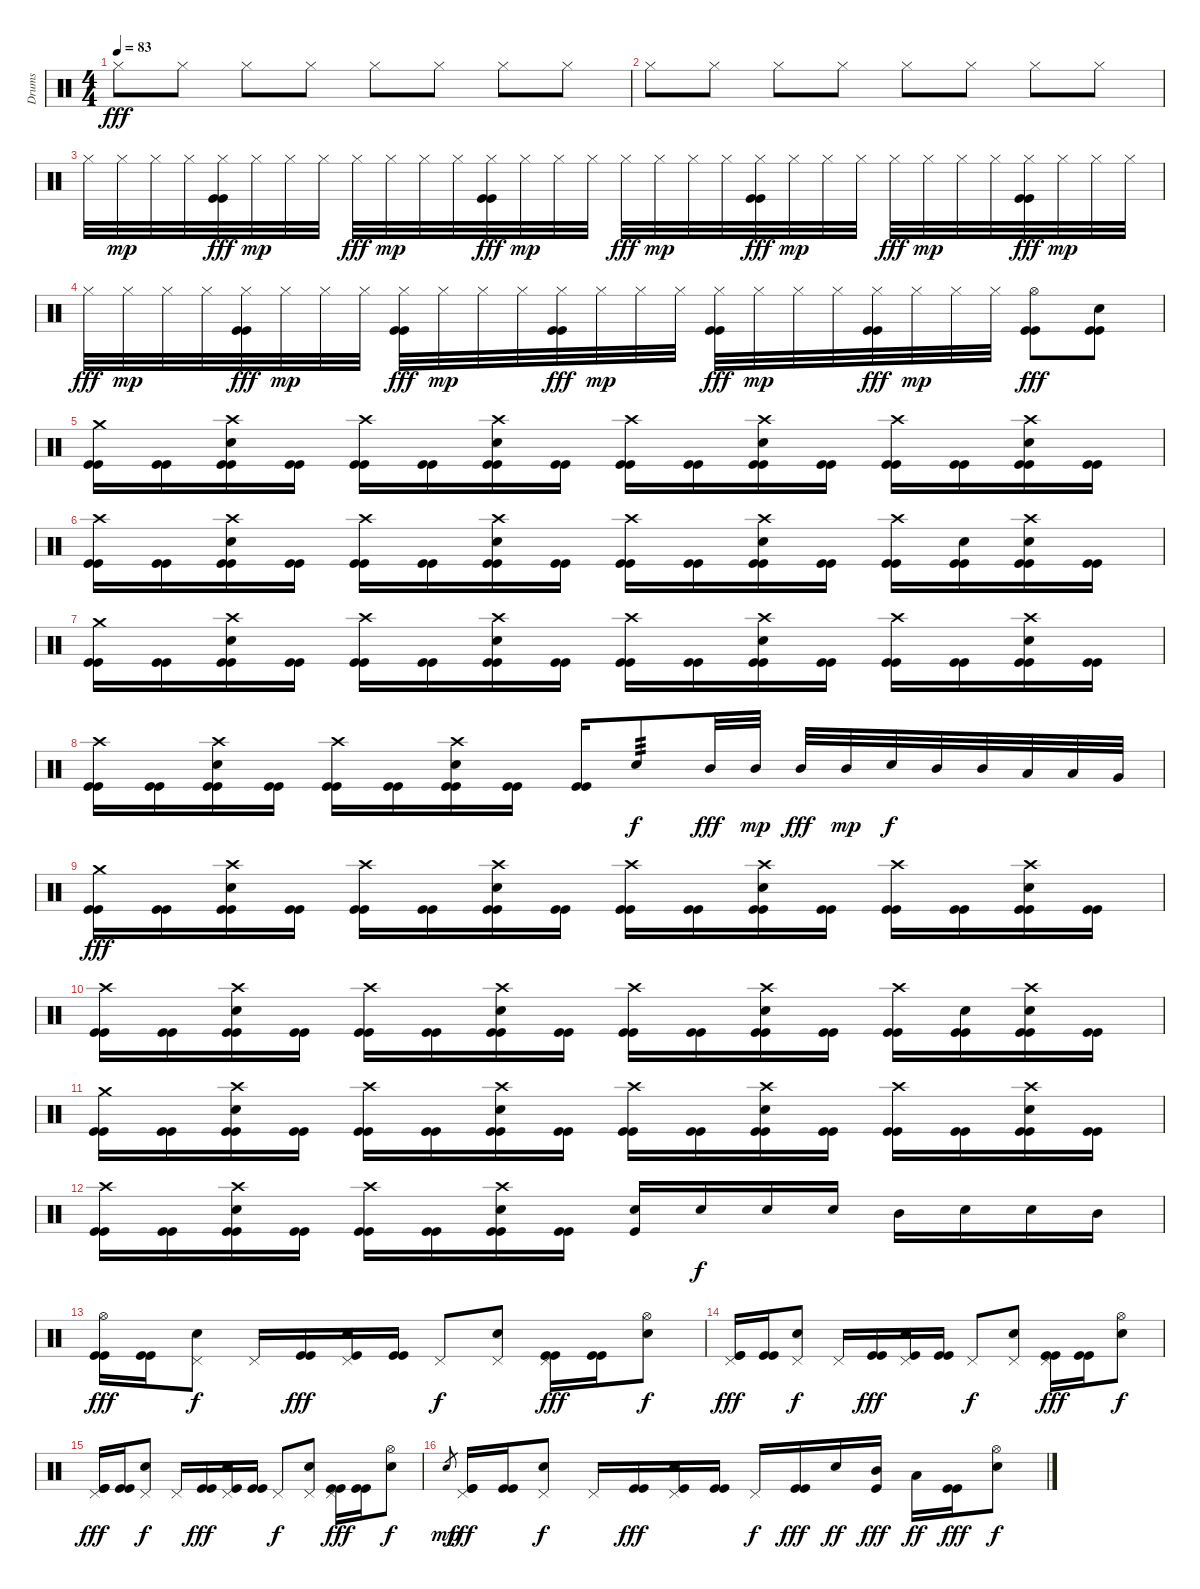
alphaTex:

\track ("Drums" "Drums") {instrument percussion}
\staff {score}
\articulation defaults
\ts (4 4)
\tempo 83
\clef neutral
\ks c "Hi-Hat (closed)".8{dy fff} "Hi-Hat (closed)".8 "Hi-Hat (closed)".8 "Hi-Hat (closed)".8 "Hi-Hat (closed)".8 "Hi-Hat (closed)".8 "Hi-Hat (closed)".8 "Hi-Hat (closed)".8
|
"Hi-Hat (closed)".8 "Hi-Hat (closed)".8 "Hi-Hat (closed)".8 "Hi-Hat (closed)".8 "Hi-Hat (closed)".8 "Hi-Hat (closed)".8 "Hi-Hat (closed)".8 "Hi-Hat (closed)".8 |
"Hi-Hat (closed)".32 "Hi-Hat (closed)".32{dy mp} "Hi-Hat (closed)".32 "Hi-Hat (closed)".32 ("Hi-Hat (closed)" "Kick (hit)" "Kick (hit)").32{dy fff} "Hi-Hat (closed)".32{dy mp} "Hi-Hat (closed)".32 "Hi-Hat (closed)".32 "Hi-Hat (closed)".32{dy fff} "Hi-Hat (closed)".32{dy mp} "Hi-Hat (closed)".32 "Hi-Hat (closed)".32 ("Hi-Hat (closed)" "Kick (hit)" "Kick (hit)").32{dy fff} "Hi-Hat (closed)".32{dy mp} "Hi-Hat (closed)".32 "Hi-Hat (closed)".32 "Hi-Hat (closed)".32{dy fff} "Hi-Hat (closed)".32{dy mp} "Hi-Hat (closed)".32 "Hi-Hat (closed)".32 ("Hi-Hat (closed)" "Kick (hit)" "Kick (hit)").32{dy fff} "Hi-Hat (closed)".32{dy mp} "Hi-Hat (closed)".32 "Hi-Hat (closed)".32 "Hi-Hat (closed)".32{dy fff} "Hi-Hat (closed)".32{dy mp} "Hi-Hat (closed)".32 "Hi-Hat (closed)".32 ("Hi-Hat (closed)" "Kick (hit)" "Kick (hit)").32{dy fff} "Hi-Hat (closed)".32{dy mp} "Hi-Hat (closed)".32 "Hi-Hat (closed)".32 |
"Hi-Hat (closed)".32{dy fff} "Hi-Hat (closed)".32{dy mp} "Hi-Hat (closed)".32 "Hi-Hat (closed)".32 ("Hi-Hat (closed)" "Kick (hit)" "Kick (hit)").32{dy fff} "Hi-Hat (closed)".32{dy mp} "Hi-Hat (closed)".32 "Hi-Hat (closed)".32 ("Hi-Hat (closed)" "Kick (hit)" "Kick (hit)").32{dy fff} "Hi-Hat (closed)".32{dy mp} "Hi-Hat (closed)".32 "Hi-Hat (closed)".32 ("Hi-Hat (closed)" "Kick (hit)" "Kick (hit)").32{dy fff} "Hi-Hat (closed)".32{dy mp} "Hi-Hat (closed)".32 "Hi-Hat (closed)".32 ("Hi-Hat (closed)" "Kick (hit)" "Kick (hit)").32{dy fff} "Hi-Hat (closed)".32{dy mp} "Hi-Hat (closed)".32 "Hi-Hat (closed)".32 ("Hi-Hat (closed)" "Kick (hit)" "Kick (hit)").32{dy fff} "Hi-Hat (closed)".32{dy mp} "Hi-Hat (closed)".32 "Hi-Hat (closed)".32 ("Hi-Hat (open)" "Kick (hit)" "Kick (hit)").8{dy fff} ("Snare (hit) 2" "Kick (hit)" "Kick (hit)").8 |
("Crash medium (hit)" "Kick (hit)" "Kick (hit)").16 ("Kick (hit)" "Kick (hit)").16 ("Crash high (hit)" "Snare (hit) 2" "Kick (hit)" "Kick (hit)").16 ("Kick (hit)" "Kick (hit)").16 ("Crash high (hit)" "Kick (hit)" "Kick (hit)").16 ("Kick (hit)" "Kick (hit)").16 ("Crash high (hit)" "Snare (hit) 2" "Kick (hit)" "Kick (hit)").16 ("Kick (hit)" "Kick (hit)").16 ("Crash high (hit)" "Kick (hit)" "Kick (hit)").16 ("Kick (hit)" "Kick (hit)").16 ("Crash high (hit)" "Snare (hit) 2" "Kick (hit)" "Kick (hit)").16 ("Kick (hit)" "Kick (hit)").16 ("Crash high (hit)" "Kick (hit)" "Kick (hit)").16 ("Kick (hit)" "Kick (hit)").16 ("Crash high (hit)" "Snare (hit) 2" "Kick (hit)" "Kick (hit)").16 ("Kick (hit)" "Kick (hit)").16 |
("Crash high (hit)" "Kick (hit)" "Kick (hit)").16 ("Kick (hit)" "Kick (hit)").16 ("Crash high (hit)" "Snare (hit) 2" "Kick (hit)" "Kick (hit)").16 ("Kick (hit)" "Kick (hit)").16 ("Crash high (hit)" "Kick (hit)" "Kick (hit)").16 ("Kick (hit)" "Kick (hit)").16 ("Crash high (hit)" "Snare (hit) 2" "Kick (hit)" "Kick (hit)").16 ("Kick (hit)" "Kick (hit)").16 ("Crash high (hit)" "Kick (hit)" "Kick (hit)").16 ("Kick (hit)" "Kick (hit)").16 ("Crash high (hit)" "Snare (hit) 2" "Kick (hit)" "Kick (hit)").16 ("Kick (hit)" "Kick (hit)").16 ("Crash high (hit)" "Kick (hit)" "Kick (hit)").16 ("Snare (hit) 2" "Kick (hit)" "Kick (hit)").16 ("Crash high (hit)" "Snare (hit) 2" "Kick (hit)" "Kick (hit)").16 ("Kick (hit)" "Kick (hit)").16 |
("Crash medium (hit)" "Kick (hit)" "Kick (hit)").16 ("Kick (hit)" "Kick (hit)").16 ("Crash high (hit)" "Snare (hit) 2" "Kick (hit)" "Kick (hit)").16 ("Kick (hit)" "Kick (hit)").16 ("Crash high (hit)" "Kick (hit)" "Kick (hit)").16 ("Kick (hit)" "Kick (hit)").16 ("Crash high (hit)" "Snare (hit) 2" "Kick (hit)" "Kick (hit)").16 ("Kick (hit)" "Kick (hit)").16 ("Crash high (hit)" "Kick (hit)" "Kick (hit)").16 ("Kick (hit)" "Kick (hit)").16 ("Crash high (hit)" "Snare (hit) 2" "Kick (hit)" "Kick (hit)").16 ("Kick (hit)" "Kick (hit)").16 ("Crash high (hit)" "Kick (hit)" "Kick (hit)").16 ("Kick (hit)" "Kick (hit)").16 ("Crash high (hit)" "Snare (hit) 2" "Kick (hit)" "Kick (hit)").16 ("Kick (hit)" "Kick (hit)").16 |
("Crash high (hit)" "Kick (hit)" "Kick (hit)").16 ("Kick (hit)" "Kick (hit)").16 ("Crash high (hit)" "Snare (hit) 2" "Kick (hit)" "Kick (hit)").16 ("Kick (hit)" "Kick (hit)").16 ("Crash high (hit)" "Kick (hit)" "Kick (hit)").16 ("Kick (hit)" "Kick (hit)").16 ("Crash high (hit)" "Snare (hit) 2" "Kick (hit)" "Kick (hit)").16 ("Kick (hit)" "Kick (hit)").16 ("Kick (hit)" "Kick (hit)").16 "Snare (hit) 2".8{tp 3 dy f} "Mid Tom (hit)".32{dy fff} "Mid Tom (hit)".32{dy mp} "Mid Tom (hit)".32{dy fff} "Mid Tom (hit)".32{dy mp} "Snare (hit) 2".32{dy f} "Mid Tom (hit)".32 "Mid Tom (hit)".32 "Low Tom (hit)".32 "Low Tom (hit)".32 "Very Low Tom (hit)".32 |
("Crash medium (hit)" "Kick (hit)" "Kick (hit)").16{dy fff} ("Kick (hit)" "Kick (hit)").16 ("Crash high (hit)" "Snare (hit) 2" "Kick (hit)" "Kick (hit)").16 ("Kick (hit)" "Kick (hit)").16 ("Crash high (hit)" "Kick (hit)" "Kick (hit)").16 ("Kick (hit)" "Kick (hit)").16 ("Crash high (hit)" "Snare (hit) 2" "Kick (hit)" "Kick (hit)").16 ("Kick (hit)" "Kick (hit)").16 ("Crash high (hit)" "Kick (hit)" "Kick (hit)").16 ("Kick (hit)" "Kick (hit)").16 ("Crash high (hit)" "Snare (hit) 2" "Kick (hit)" "Kick (hit)").16 ("Kick (hit)" "Kick (hit)").16 ("Crash high (hit)" "Kick (hit)" "Kick (hit)").16 ("Kick (hit)" "Kick (hit)").16 ("Crash high (hit)" "Snare (hit) 2" "Kick (hit)" "Kick (hit)").16 ("Kick (hit)" "Kick (hit)").16 |
("Crash high (hit)" "Kick (hit)" "Kick (hit)").16 ("Kick (hit)" "Kick (hit)").16 ("Crash high (hit)" "Snare (hit) 2" "Kick (hit)" "Kick (hit)").16 ("Kick (hit)" "Kick (hit)").16 ("Crash high (hit)" "Kick (hit)" "Kick (hit)").16 ("Kick (hit)" "Kick (hit)").16 ("Crash high (hit)" "Snare (hit) 2" "Kick (hit)" "Kick (hit)").16 ("Kick (hit)" "Kick (hit)").16 ("Crash high (hit)" "Kick (hit)" "Kick (hit)").16 ("Kick (hit)" "Kick (hit)").16 ("Crash high (hit)" "Snare (hit) 2" "Kick (hit)" "Kick (hit)").16 ("Kick (hit)" "Kick (hit)").16 ("Crash high (hit)" "Kick (hit)" "Kick (hit)").16 ("Snare (hit) 2" "Kick (hit)" "Kick (hit)").16 ("Crash high (hit)" "Snare (hit) 2" "Kick (hit)" "Kick (hit)").16 ("Kick (hit)" "Kick (hit)").16 |
("Crash medium (hit)" "Kick (hit)" "Kick (hit)").16 ("Kick (hit)" "Kick (hit)").16 ("Crash high (hit)" "Snare (hit) 2" "Kick (hit)" "Kick (hit)").16 ("Kick (hit)" "Kick (hit)").16 ("Crash high (hit)" "Kick (hit)" "Kick (hit)").16 ("Kick (hit)" "Kick (hit)").16 ("Crash high (hit)" "Snare (hit) 2" "Kick (hit)" "Kick (hit)").16 ("Kick (hit)" "Kick (hit)").16 ("Crash high (hit)" "Kick (hit)" "Kick (hit)").16 ("Kick (hit)" "Kick (hit)").16 ("Crash high (hit)" "Snare (hit) 2" "Kick (hit)" "Kick (hit)").16 ("Kick (hit)" "Kick (hit)").16 ("Crash high (hit)" "Kick (hit)" "Kick (hit)").16 ("Kick (hit)" "Kick (hit)").16 ("Crash high (hit)" "Snare (hit) 2" "Kick (hit)" "Kick (hit)").16 ("Kick (hit)" "Kick (hit)").16 |
("Crash high (hit)" "Kick (hit)" "Kick (hit)").16 ("Kick (hit)" "Kick (hit)").16 ("Crash high (hit)" "Snare (hit) 2" "Kick (hit)" "Kick (hit)").16 ("Kick (hit)" "Kick (hit)").16 ("Crash high (hit)" "Kick (hit)" "Kick (hit)").16 ("Kick (hit)" "Kick (hit)").16 ("Crash high (hit)" "Snare (hit) 2" "Kick (hit)" "Kick (hit)").16 ("Kick (hit)" "Kick (hit)").16 ("Snare (hit) 2" "Kick (hit)").16 "Snare (hit) 2".16{dy f} "Snare (hit) 2".16 "Snare (hit) 2".16 "Mid Tom (hit)".16 "Snare (hit) 2".16 "Snare (hit) 2".16 "Mid Tom (hit)".16 |
("Hi-Hat (open)" "Kick (hit)" "Kick (hit)").16{dy fff} ("Kick (hit)" "Kick (hit)").16 ("Pedal Hi-Hat (hit)" "Snare (hit) 2").8{dy f} "Pedal Hi-Hat (hit)".16 ("Kick (hit)" "Kick (hit)").16{dy fff} ("Pedal Hi-Hat (hit)" "Snare (hit) 2" "Kick (hit)").16 ("Kick (hit)" "Kick (hit)").16 "Pedal Hi-Hat (hit)".8{dy f} ("Pedal Hi-Hat (hit)" "Snare (hit) 2").8 ("Pedal Hi-Hat (hit)" "Kick (hit)" "Kick (hit)").16{dy fff} ("Kick (hit)" "Kick (hit)").16 ("Hi-Hat (open)" "Snare (hit) 2").8{dy f} |
("Pedal Hi-Hat (hit)" "Kick (hit)" "Kick (hit)").16{dy fff} ("Kick (hit)" "Kick (hit)").16 ("Pedal Hi-Hat (hit)" "Snare (hit) 2").8{dy f} "Pedal Hi-Hat (hit)".16 ("Kick (hit)" "Kick (hit)").16{dy fff} ("Pedal Hi-Hat (hit)" "Snare (hit) 2" "Kick (hit)").16 ("Kick (hit)" "Kick (hit)").16 "Pedal Hi-Hat (hit)".8{dy f} ("Pedal Hi-Hat (hit)" "Snare (hit) 2").8 ("Pedal Hi-Hat (hit)" "Kick (hit)" "Kick (hit)").16{dy fff} ("Kick (hit)" "Kick (hit)").16 ("Hi-Hat (open)" "Snare (hit) 2").8{dy f} |
("Pedal Hi-Hat (hit)" "Kick (hit)" "Kick (hit)").16{dy fff} ("Kick (hit)" "Kick (hit)").16 ("Pedal Hi-Hat (hit)" "Snare (hit) 2").8{dy f} "Pedal Hi-Hat (hit)".16 ("Kick (hit)" "Kick (hit)").16{dy fff} ("Pedal Hi-Hat (hit)" "Snare (hit) 2" "Kick (hit)").16 ("Kick (hit)" "Kick (hit)").16 "Pedal Hi-Hat (hit)".8{dy f} ("Pedal Hi-Hat (hit)" "Snare (hit) 2").8 ("Pedal Hi-Hat (hit)" "Kick (hit)" "Kick (hit)").16{dy fff} ("Kick (hit)" "Kick (hit)").16 ("Hi-Hat (open)" "Snare (hit) 2").8{dy f} |
"Snare (hit) 2".8{gr dy mp} ("Pedal Hi-Hat (hit)" "Kick (hit)" "Kick (hit)").16{dy fff} ("Kick (hit)" "Kick (hit)").16 ("Pedal Hi-Hat (hit)" "Snare (hit) 2").8{dy f} "Pedal Hi-Hat (hit)".16 ("Kick (hit)" "Kick (hit)").16{dy fff} ("Pedal Hi-Hat (hit)" "Snare (hit) 2" "Kick (hit)").16 ("Kick (hit)" "Kick (hit)").16 "Pedal Hi-Hat (hit)".16{dy f} ("Kick (hit)" "Kick (hit)").16{dy fff} "Snare (hit) 2".16{dy ff} ("Mid Tom (hit)" "Kick (hit)").16{dy fff} "Low Tom (hit)".16{dy ff} ("Kick (hit)" "Kick (hit)").16{dy fff} ("Hi-Hat (open)" "Snare (hit) 2").8{dy f}
